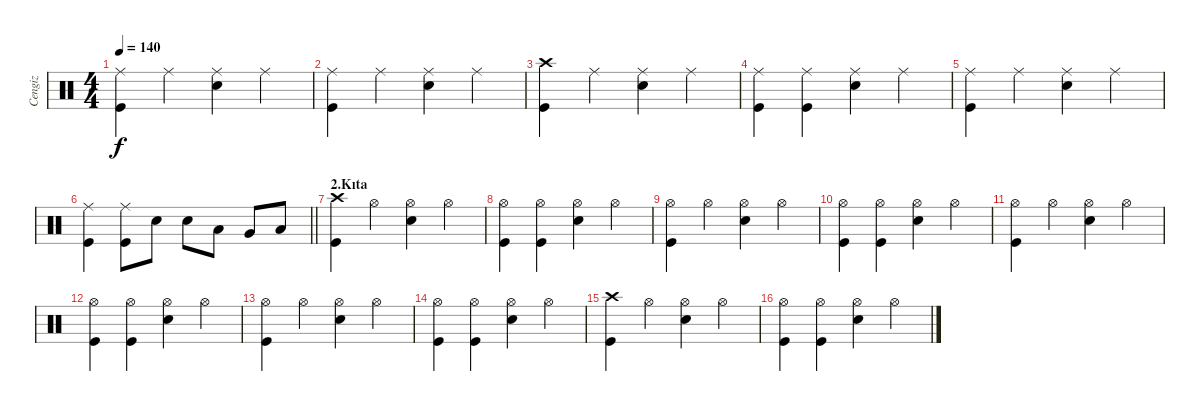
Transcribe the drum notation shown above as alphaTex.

\track ("Cengiz" "Cengiz") {instrument percussion}
\staff {score}
\articulation defaults
\ts (4 4)
\tempo 140
\clef neutral
\ks c
("Ride (middle)" "Kick (hit)").4{dy f} "Ride (middle)".4 ("Ride (middle)" "Electric Snare (hit)").4 "Ride (middle)".4 |
("Ride (middle)" "Kick (hit)").4 "Ride (middle)".4 ("Ride (middle)" "Electric Snare (hit)").4 "Ride (middle)".4 |
("Crash high (hit)" "Kick (hit)").4 "Ride (middle)".4 ("Ride (middle)" "Electric Snare (hit)").4 "Ride (middle)".4 |
("Ride (middle)" "Kick (hit)").4 ("Ride (middle)" "Kick (hit)").4 ("Ride (middle)" "Electric Snare (hit)").4 "Ride (middle)".4 |
("Ride (middle)" "Kick (hit)").4 "Ride (middle)".4 ("Ride (middle)" "Electric Snare (hit)").4 "Ride (middle)".4 |
\barLineRight lightlight
("Ride (middle)" "Kick (hit)").4 ("Ride (middle)" "Kick (hit)").8 "Electric Snare (hit)".8 "Electric Snare (hit)".8 "Low Tom (hit)".8 "Very Low Tom (hit)".8 "Low Floor Tom (hit)".8 |
\section ("" "2.Kıta")
("Crash high (hit)" "Kick (hit)").4 "Hi-Hat (open)".4 ("Hi-Hat (open)" "Electric Snare (hit)").4 "Hi-Hat (open)".4 |
("Hi-Hat (open)" "Kick (hit)").4 ("Hi-Hat (open)" "Kick (hit)").4 ("Hi-Hat (open)" "Electric Snare (hit)").4 "Hi-Hat (open)".4 |
("Hi-Hat (open)" "Kick (hit)").4 "Hi-Hat (open)".4 ("Hi-Hat (open)" "Electric Snare (hit)").4 "Hi-Hat (open)".4 |
("Hi-Hat (open)" "Kick (hit)").4 ("Hi-Hat (open)" "Kick (hit)").4 ("Hi-Hat (open)" "Electric Snare (hit)").4 "Hi-Hat (open)".4 |
("Hi-Hat (open)" "Kick (hit)").4 "Hi-Hat (open)".4 ("Hi-Hat (open)" "Electric Snare (hit)").4 "Hi-Hat (open)".4 |
("Hi-Hat (open)" "Kick (hit)").4 ("Hi-Hat (open)" "Kick (hit)").4 ("Hi-Hat (open)" "Electric Snare (hit)").4 "Hi-Hat (open)".4 |
("Hi-Hat (open)" "Kick (hit)").4 "Hi-Hat (open)".4 ("Hi-Hat (open)" "Electric Snare (hit)").4 "Hi-Hat (open)".4 |
("Hi-Hat (open)" "Kick (hit)").4 ("Hi-Hat (open)" "Kick (hit)").4 ("Hi-Hat (open)" "Electric Snare (hit)").4 "Hi-Hat (open)".4 |
("Crash high (hit)" "Kick (hit)").4 "Hi-Hat (open)".4 ("Hi-Hat (open)" "Electric Snare (hit)").4 "Hi-Hat (open)".4 |
("Hi-Hat (open)" "Kick (hit)").4 ("Hi-Hat (open)" "Kick (hit)").4 ("Hi-Hat (open)" "Electric Snare (hit)").4 "Hi-Hat (open)".4
